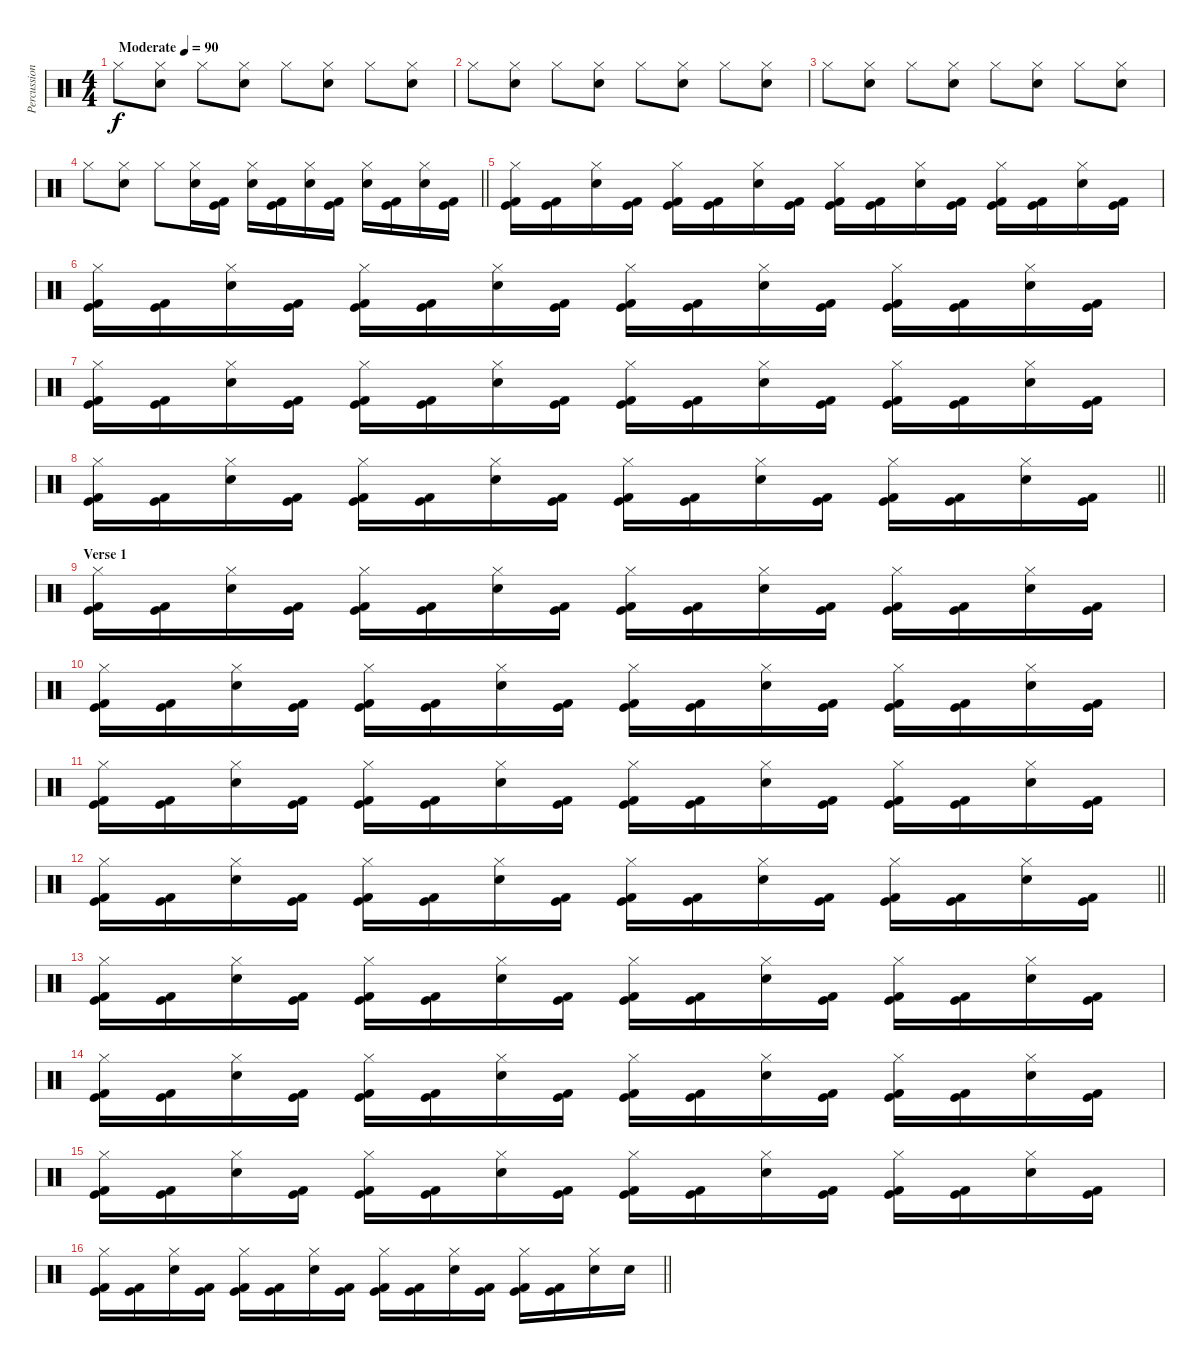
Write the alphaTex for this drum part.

\track ("Percussion" "Percussion") {instrument percussion}
\staff {score}
\articulation defaults
\ts (4 4)
\tempo (90 "Moderate")
\clef neutral
\ks c "Hi-Hat (closed)".8{dy f}
("Hi-Hat (closed)" "Electric Snare (hit)").8 "Hi-Hat (closed)".8 ("Hi-Hat (closed)" "Electric Snare (hit)").8 "Hi-Hat (closed)".8 ("Hi-Hat (closed)" "Electric Snare (hit)").8 "Hi-Hat (closed)".8 ("Hi-Hat (closed)" "Electric Snare (hit)").8 |
"Hi-Hat (closed)".8 ("Hi-Hat (closed)" "Electric Snare (hit)").8 "Hi-Hat (closed)".8 ("Hi-Hat (closed)" "Electric Snare (hit)").8 "Hi-Hat (closed)".8 ("Hi-Hat (closed)" "Electric Snare (hit)").8 "Hi-Hat (closed)".8 ("Hi-Hat (closed)" "Electric Snare (hit)").8 |
"Hi-Hat (closed)".8 ("Hi-Hat (closed)" "Electric Snare (hit)").8 "Hi-Hat (closed)".8 ("Hi-Hat (closed)" "Electric Snare (hit)").8 "Hi-Hat (closed)".8 ("Hi-Hat (closed)" "Electric Snare (hit)").8 "Hi-Hat (closed)".8 ("Hi-Hat (closed)" "Electric Snare (hit)").8 |
\barLineRight lightlight "Hi-Hat (closed)".8
("Hi-Hat (closed)" "Electric Snare (hit)").8 "Hi-Hat (closed)".8 ("Hi-Hat (closed)" "Electric Snare (hit)").16 ("Kick (hit)" "Kick (hit) 2").16 ("Hi-Hat (closed)" "Electric Snare (hit)").16 ("Kick (hit)" "Kick (hit) 2").16 ("Hi-Hat (closed)" "Electric Snare (hit)").16 ("Kick (hit)" "Kick (hit) 2").16 ("Hi-Hat (closed)" "Electric Snare (hit)").16 ("Kick (hit)" "Kick (hit) 2").16 ("Hi-Hat (closed)" "Electric Snare (hit)").16 ("Kick (hit)" "Kick (hit) 2").16 |
\section ("" "")
("Hi-Hat (closed)" "Kick (hit)" "Kick (hit) 2").16 ("Kick (hit)" "Kick (hit) 2").16 ("Hi-Hat (closed)" "Electric Snare (hit)").16 ("Kick (hit)" "Kick (hit) 2").16 ("Hi-Hat (closed)" "Kick (hit)" "Kick (hit) 2").16 ("Kick (hit)" "Kick (hit) 2").16 ("Hi-Hat (closed)" "Electric Snare (hit)").16 ("Kick (hit)" "Kick (hit) 2").16 ("Hi-Hat (closed)" "Kick (hit)" "Kick (hit) 2").16 ("Kick (hit)" "Kick (hit) 2").16 ("Hi-Hat (closed)" "Electric Snare (hit)").16 ("Kick (hit)" "Kick (hit) 2").16 ("Hi-Hat (closed)" "Kick (hit)" "Kick (hit) 2").16 ("Kick (hit)" "Kick (hit) 2").16 ("Hi-Hat (closed)" "Electric Snare (hit)").16 ("Kick (hit)" "Kick (hit) 2").16 |
("Hi-Hat (closed)" "Kick (hit)" "Kick (hit) 2").16 ("Kick (hit)" "Kick (hit) 2").16 ("Hi-Hat (closed)" "Electric Snare (hit)").16 ("Kick (hit)" "Kick (hit) 2").16 ("Hi-Hat (closed)" "Kick (hit)" "Kick (hit) 2").16 ("Kick (hit)" "Kick (hit) 2").16 ("Hi-Hat (closed)" "Electric Snare (hit)").16 ("Kick (hit)" "Kick (hit) 2").16 ("Hi-Hat (closed)" "Kick (hit)" "Kick (hit) 2").16 ("Kick (hit)" "Kick (hit) 2").16 ("Hi-Hat (closed)" "Electric Snare (hit)").16 ("Kick (hit)" "Kick (hit) 2").16 ("Hi-Hat (closed)" "Kick (hit)" "Kick (hit) 2").16 ("Kick (hit)" "Kick (hit) 2").16 ("Hi-Hat (closed)" "Electric Snare (hit)").16 ("Kick (hit)" "Kick (hit) 2").16 |
("Hi-Hat (closed)" "Kick (hit)" "Kick (hit) 2").16 ("Kick (hit)" "Kick (hit) 2").16 ("Hi-Hat (closed)" "Electric Snare (hit)").16 ("Kick (hit)" "Kick (hit) 2").16 ("Hi-Hat (closed)" "Kick (hit)" "Kick (hit) 2").16 ("Kick (hit)" "Kick (hit) 2").16 ("Hi-Hat (closed)" "Electric Snare (hit)").16 ("Kick (hit)" "Kick (hit) 2").16 ("Hi-Hat (closed)" "Kick (hit)" "Kick (hit) 2").16 ("Kick (hit)" "Kick (hit) 2").16 ("Hi-Hat (closed)" "Electric Snare (hit)").16 ("Kick (hit)" "Kick (hit) 2").16 ("Hi-Hat (closed)" "Kick (hit)" "Kick (hit) 2").16 ("Kick (hit)" "Kick (hit) 2").16 ("Hi-Hat (closed)" "Electric Snare (hit)").16 ("Kick (hit)" "Kick (hit) 2").16 |
\barLineRight lightlight
("Hi-Hat (closed)" "Kick (hit)" "Kick (hit) 2").16 ("Kick (hit)" "Kick (hit) 2").16 ("Hi-Hat (closed)" "Electric Snare (hit)").16 ("Kick (hit)" "Kick (hit) 2").16 ("Hi-Hat (closed)" "Kick (hit)" "Kick (hit) 2").16 ("Kick (hit)" "Kick (hit) 2").16 ("Hi-Hat (closed)" "Electric Snare (hit)").16 ("Kick (hit)" "Kick (hit) 2").16 ("Hi-Hat (closed)" "Kick (hit)" "Kick (hit) 2").16 ("Kick (hit)" "Kick (hit) 2").16 ("Hi-Hat (closed)" "Electric Snare (hit)").16 ("Kick (hit)" "Kick (hit) 2").16 ("Hi-Hat (closed)" "Kick (hit)" "Kick (hit) 2").16 ("Kick (hit)" "Kick (hit) 2").16 ("Hi-Hat (closed)" "Electric Snare (hit)").16 ("Kick (hit)" "Kick (hit) 2").16 |
\section ("" "Verse 1")
("Hi-Hat (closed)" "Kick (hit)" "Kick (hit) 2").16 ("Kick (hit)" "Kick (hit) 2").16 ("Hi-Hat (closed)" "Electric Snare (hit)").16 ("Kick (hit)" "Kick (hit) 2").16 ("Hi-Hat (closed)" "Kick (hit)" "Kick (hit) 2").16 ("Kick (hit)" "Kick (hit) 2").16 ("Hi-Hat (closed)" "Electric Snare (hit)").16 ("Kick (hit)" "Kick (hit) 2").16 ("Hi-Hat (closed)" "Kick (hit)" "Kick (hit) 2").16 ("Kick (hit)" "Kick (hit) 2").16 ("Hi-Hat (closed)" "Electric Snare (hit)").16 ("Kick (hit)" "Kick (hit) 2").16 ("Hi-Hat (closed)" "Kick (hit)" "Kick (hit) 2").16 ("Kick (hit)" "Kick (hit) 2").16 ("Hi-Hat (closed)" "Electric Snare (hit)").16 ("Kick (hit)" "Kick (hit) 2").16 |
("Hi-Hat (closed)" "Kick (hit)" "Kick (hit) 2").16 ("Kick (hit)" "Kick (hit) 2").16 ("Hi-Hat (closed)" "Electric Snare (hit)").16 ("Kick (hit)" "Kick (hit) 2").16 ("Hi-Hat (closed)" "Kick (hit)" "Kick (hit) 2").16 ("Kick (hit)" "Kick (hit) 2").16 ("Hi-Hat (closed)" "Electric Snare (hit)").16 ("Kick (hit)" "Kick (hit) 2").16 ("Hi-Hat (closed)" "Kick (hit)" "Kick (hit) 2").16 ("Kick (hit)" "Kick (hit) 2").16 ("Hi-Hat (closed)" "Electric Snare (hit)").16 ("Kick (hit)" "Kick (hit) 2").16 ("Hi-Hat (closed)" "Kick (hit)" "Kick (hit) 2").16 ("Kick (hit)" "Kick (hit) 2").16 ("Hi-Hat (closed)" "Electric Snare (hit)").16 ("Kick (hit)" "Kick (hit) 2").16 |
("Hi-Hat (closed)" "Kick (hit)" "Kick (hit) 2").16 ("Kick (hit)" "Kick (hit) 2").16 ("Hi-Hat (closed)" "Electric Snare (hit)").16 ("Kick (hit)" "Kick (hit) 2").16 ("Hi-Hat (closed)" "Kick (hit)" "Kick (hit) 2").16 ("Kick (hit)" "Kick (hit) 2").16 ("Hi-Hat (closed)" "Electric Snare (hit)").16 ("Kick (hit)" "Kick (hit) 2").16 ("Hi-Hat (closed)" "Kick (hit)" "Kick (hit) 2").16 ("Kick (hit)" "Kick (hit) 2").16 ("Hi-Hat (closed)" "Electric Snare (hit)").16 ("Kick (hit)" "Kick (hit) 2").16 ("Hi-Hat (closed)" "Kick (hit)" "Kick (hit) 2").16 ("Kick (hit)" "Kick (hit) 2").16 ("Hi-Hat (closed)" "Electric Snare (hit)").16 ("Kick (hit)" "Kick (hit) 2").16 |
\barLineRight lightlight
("Hi-Hat (closed)" "Kick (hit)" "Kick (hit) 2").16 ("Kick (hit)" "Kick (hit) 2").16 ("Hi-Hat (closed)" "Electric Snare (hit)").16 ("Kick (hit)" "Kick (hit) 2").16 ("Hi-Hat (closed)" "Kick (hit)" "Kick (hit) 2").16 ("Kick (hit)" "Kick (hit) 2").16 ("Hi-Hat (closed)" "Electric Snare (hit)").16 ("Kick (hit)" "Kick (hit) 2").16 ("Hi-Hat (closed)" "Kick (hit)" "Kick (hit) 2").16 ("Kick (hit)" "Kick (hit) 2").16 ("Hi-Hat (closed)" "Electric Snare (hit)").16 ("Kick (hit)" "Kick (hit) 2").16 ("Hi-Hat (closed)" "Kick (hit)" "Kick (hit) 2").16 ("Kick (hit)" "Kick (hit) 2").16 ("Hi-Hat (closed)" "Electric Snare (hit)").16 ("Kick (hit)" "Kick (hit) 2").16 |
\section ("" "")
("Hi-Hat (closed)" "Kick (hit)" "Kick (hit) 2").16 ("Kick (hit)" "Kick (hit) 2").16 ("Hi-Hat (closed)" "Electric Snare (hit)").16 ("Kick (hit)" "Kick (hit) 2").16 ("Hi-Hat (closed)" "Kick (hit)" "Kick (hit) 2").16 ("Kick (hit)" "Kick (hit) 2").16 ("Hi-Hat (closed)" "Electric Snare (hit)").16 ("Kick (hit)" "Kick (hit) 2").16 ("Hi-Hat (closed)" "Kick (hit)" "Kick (hit) 2").16 ("Kick (hit)" "Kick (hit) 2").16 ("Hi-Hat (closed)" "Electric Snare (hit)").16 ("Kick (hit)" "Kick (hit) 2").16 ("Hi-Hat (closed)" "Kick (hit)" "Kick (hit) 2").16 ("Kick (hit)" "Kick (hit) 2").16 ("Hi-Hat (closed)" "Electric Snare (hit)").16 ("Kick (hit)" "Kick (hit) 2").16 |
("Hi-Hat (closed)" "Kick (hit)" "Kick (hit) 2").16 ("Kick (hit)" "Kick (hit) 2").16 ("Hi-Hat (closed)" "Electric Snare (hit)").16 ("Kick (hit)" "Kick (hit) 2").16 ("Hi-Hat (closed)" "Kick (hit)" "Kick (hit) 2").16 ("Kick (hit)" "Kick (hit) 2").16 ("Hi-Hat (closed)" "Electric Snare (hit)").16 ("Kick (hit)" "Kick (hit) 2").16 ("Hi-Hat (closed)" "Kick (hit)" "Kick (hit) 2").16 ("Kick (hit)" "Kick (hit) 2").16 ("Hi-Hat (closed)" "Electric Snare (hit)").16 ("Kick (hit)" "Kick (hit) 2").16 ("Hi-Hat (closed)" "Kick (hit)" "Kick (hit) 2").16 ("Kick (hit)" "Kick (hit) 2").16 ("Hi-Hat (closed)" "Electric Snare (hit)").16 ("Kick (hit)" "Kick (hit) 2").16 |
("Hi-Hat (closed)" "Kick (hit)" "Kick (hit) 2").16 ("Kick (hit)" "Kick (hit) 2").16 ("Hi-Hat (closed)" "Electric Snare (hit)").16 ("Kick (hit)" "Kick (hit) 2").16 ("Hi-Hat (closed)" "Kick (hit)" "Kick (hit) 2").16 ("Kick (hit)" "Kick (hit) 2").16 ("Hi-Hat (closed)" "Electric Snare (hit)").16 ("Kick (hit)" "Kick (hit) 2").16 ("Hi-Hat (closed)" "Kick (hit)" "Kick (hit) 2").16 ("Kick (hit)" "Kick (hit) 2").16 ("Hi-Hat (closed)" "Electric Snare (hit)").16 ("Kick (hit)" "Kick (hit) 2").16 ("Hi-Hat (closed)" "Kick (hit)" "Kick (hit) 2").16 ("Kick (hit)" "Kick (hit) 2").16 ("Hi-Hat (closed)" "Electric Snare (hit)").16 ("Kick (hit)" "Kick (hit) 2").16 |
\barLineRight lightlight
("Hi-Hat (closed)" "Kick (hit)" "Kick (hit) 2").16 ("Kick (hit)" "Kick (hit) 2").16 ("Hi-Hat (closed)" "Electric Snare (hit)").16 ("Kick (hit)" "Kick (hit) 2").16 ("Hi-Hat (closed)" "Kick (hit)" "Kick (hit) 2").16 ("Kick (hit)" "Kick (hit) 2").16 ("Hi-Hat (closed)" "Electric Snare (hit)").16 ("Kick (hit)" "Kick (hit) 2").16 ("Hi-Hat (closed)" "Kick (hit)" "Kick (hit) 2").16 ("Kick (hit)" "Kick (hit) 2").16 ("Hi-Hat (closed)" "Electric Snare (hit)").16 ("Kick (hit)" "Kick (hit) 2").16 ("Hi-Hat (closed)" "Kick (hit)" "Kick (hit) 2").16 ("Kick (hit)" "Kick (hit) 2").16 ("Hi-Hat (closed)" "Electric Snare (hit)").16 "Electric Snare (hit)".16
